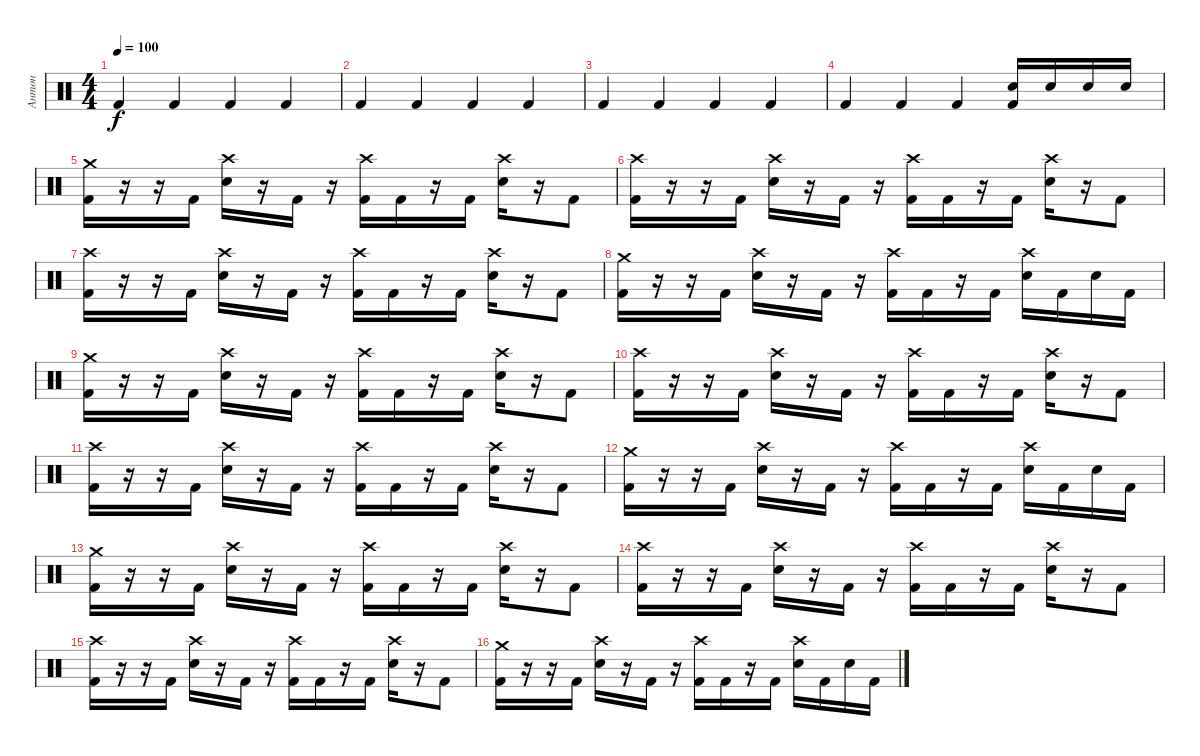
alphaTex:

\track ("Антон" "Антон") {instrument percussion}
\staff {score}
\articulation defaults
\ts (4 4)
\tempo 100
\clef neutral
\ks c "Kick (hit) 2".4{dy f} "Kick (hit) 2".4 "Kick (hit) 2".4 "Kick (hit) 2".4
|
"Kick (hit) 2".4 "Kick (hit) 2".4 "Kick (hit) 2".4 "Kick (hit) 2".4 |
"Kick (hit) 2".4 "Kick (hit) 2".4 "Kick (hit) 2".4 "Kick (hit) 2".4 |
"Kick (hit) 2".4 "Kick (hit) 2".4 "Kick (hit) 2".4 ("Electric Snare (hit)" "Kick (hit) 2").16 "Electric Snare (hit)".16 "Electric Snare (hit)".16 "Electric Snare (hit)".16 |
("Crash medium (hit)" "Kick (hit) 2").16 r.16 r.16 "Kick (hit) 2".16 ("Crash high (hit)" "Electric Snare (hit)").16 r.16 "Kick (hit) 2".16 r.16 ("Crash high (hit)" "Kick (hit) 2").16 "Kick (hit) 2".16 r.16 "Kick (hit) 2".16 ("Crash high (hit)" "Electric Snare (hit)").16 r.16 "Kick (hit) 2".8 |
("Crash high (hit)" "Kick (hit) 2").16 r.16 r.16 "Kick (hit) 2".16 ("Crash high (hit)" "Electric Snare (hit)").16 r.16 "Kick (hit) 2".16 r.16 ("Crash high (hit)" "Kick (hit) 2").16 "Kick (hit) 2".16 r.16 "Kick (hit) 2".16 ("Crash high (hit)" "Electric Snare (hit)").16 r.16 "Kick (hit) 2".8 |
("Crash high (hit)" "Kick (hit) 2").16 r.16 r.16 "Kick (hit) 2".16 ("Crash high (hit)" "Electric Snare (hit)").16 r.16 "Kick (hit) 2".16 r.16 ("Crash high (hit)" "Kick (hit) 2").16 "Kick (hit) 2".16 r.16 "Kick (hit) 2".16 ("Crash high (hit)" "Electric Snare (hit)").16 r.16 "Kick (hit) 2".8 |
("Crash medium (hit)" "Kick (hit) 2").16 r.16 r.16 "Kick (hit) 2".16 ("Crash high (hit)" "Electric Snare (hit)").16 r.16 "Kick (hit) 2".16 r.16 ("Crash high (hit)" "Kick (hit) 2").16 "Kick (hit) 2".16 r.16 "Kick (hit) 2".16 ("Crash high (hit)" "Electric Snare (hit)").16 "Kick (hit) 2".16 "Electric Snare (hit)".16 "Kick (hit) 2".16 |
("Crash medium (hit)" "Kick (hit) 2").16 r.16 r.16 "Kick (hit) 2".16 ("Crash high (hit)" "Electric Snare (hit)").16 r.16 "Kick (hit) 2".16 r.16 ("Crash high (hit)" "Kick (hit) 2").16 "Kick (hit) 2".16 r.16 "Kick (hit) 2".16 ("Crash high (hit)" "Electric Snare (hit)").16 r.16 "Kick (hit) 2".8 |
("Crash high (hit)" "Kick (hit) 2").16 r.16 r.16 "Kick (hit) 2".16 ("Crash high (hit)" "Electric Snare (hit)").16 r.16 "Kick (hit) 2".16 r.16 ("Crash high (hit)" "Kick (hit) 2").16 "Kick (hit) 2".16 r.16 "Kick (hit) 2".16 ("Crash high (hit)" "Electric Snare (hit)").16 r.16 "Kick (hit) 2".8 |
("Crash high (hit)" "Kick (hit) 2").16 r.16 r.16 "Kick (hit) 2".16 ("Crash high (hit)" "Electric Snare (hit)").16 r.16 "Kick (hit) 2".16 r.16 ("Crash high (hit)" "Kick (hit) 2").16 "Kick (hit) 2".16 r.16 "Kick (hit) 2".16 ("Crash high (hit)" "Electric Snare (hit)").16 r.16 "Kick (hit) 2".8 |
("Crash medium (hit)" "Kick (hit) 2").16 r.16 r.16 "Kick (hit) 2".16 ("Crash high (hit)" "Electric Snare (hit)").16 r.16 "Kick (hit) 2".16 r.16 ("Crash high (hit)" "Kick (hit) 2").16 "Kick (hit) 2".16 r.16 "Kick (hit) 2".16 ("Crash high (hit)" "Electric Snare (hit)").16 "Kick (hit) 2".16 "Electric Snare (hit)".16 "Kick (hit) 2".16 |
("Crash medium (hit)" "Kick (hit) 2").16 r.16 r.16 "Kick (hit) 2".16 ("Crash high (hit)" "Electric Snare (hit)").16 r.16 "Kick (hit) 2".16 r.16 ("Crash high (hit)" "Kick (hit) 2").16 "Kick (hit) 2".16 r.16 "Kick (hit) 2".16 ("Crash high (hit)" "Electric Snare (hit)").16 r.16 "Kick (hit) 2".8 |
("Crash high (hit)" "Kick (hit) 2").16 r.16 r.16 "Kick (hit) 2".16 ("Crash high (hit)" "Electric Snare (hit)").16 r.16 "Kick (hit) 2".16 r.16 ("Crash high (hit)" "Kick (hit) 2").16 "Kick (hit) 2".16 r.16 "Kick (hit) 2".16 ("Crash high (hit)" "Electric Snare (hit)").16 r.16 "Kick (hit) 2".8 |
("Crash high (hit)" "Kick (hit) 2").16 r.16 r.16 "Kick (hit) 2".16 ("Crash high (hit)" "Electric Snare (hit)").16 r.16 "Kick (hit) 2".16 r.16 ("Crash high (hit)" "Kick (hit) 2").16 "Kick (hit) 2".16 r.16 "Kick (hit) 2".16 ("Crash high (hit)" "Electric Snare (hit)").16 r.16 "Kick (hit) 2".8 |
("Crash medium (hit)" "Kick (hit) 2").16 r.16 r.16 "Kick (hit) 2".16 ("Crash high (hit)" "Electric Snare (hit)").16 r.16 "Kick (hit) 2".16 r.16 ("Crash high (hit)" "Kick (hit) 2").16 "Kick (hit) 2".16 r.16 "Kick (hit) 2".16 ("Crash high (hit)" "Electric Snare (hit)").16 "Kick (hit) 2".16 "Electric Snare (hit)".16 "Kick (hit) 2".16
